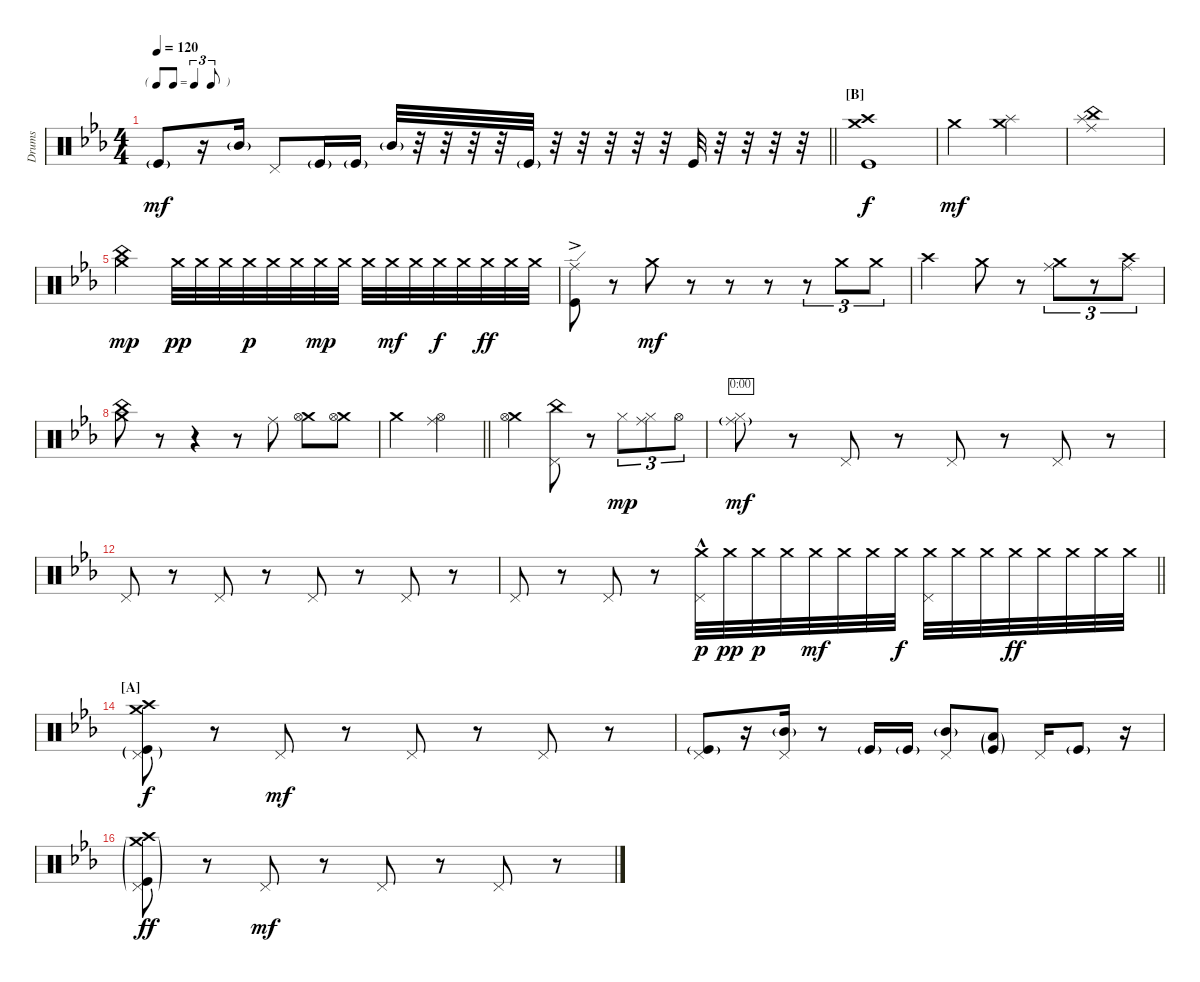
\bracketExtendMode nobrackets
\otherSystemsTrackNameOrientation horizontal
\defaultBarNumberDisplay FirstOfSystem
\track ("Drumkit" "Drums") {instrument percussion}
\staff {score}
\articulation defaults
\ts (4 4)
\tf triplet8th
\tempo 120
\clef neutral
\barLineRight lightlight
\ks cminor "Kick (hit)"{g}.8{dy mf}
r.16 "Mid Tom (hit)"{g}.16 "Pedal Hi-Hat (hit)".8 "Kick (hit)"{g}.16 "Kick (hit)"{g}.16 "Mid Tom (hit)"{g}.32 r.32 r.32 r.32 r.32 "Kick (hit)"{g}.32 r.32 r.32 r.32 r.32 r.32 "Kick (hit)".32 r.32 r.32 r.32 r.32 |
\section ("B" "")
("Crash medium (hit)" "Crash high (hit)" "Kick (hit)").1{dy f} |
"Crash medium (hit)".2{dy mf} ("Crash medium (hit)" "Splash (hit)").2 |
("Ride (middle)" "China (hit)" "Splash (hit)").1 |
("Crash medium (hit)" "China (hit)").2{dy mp} "Crash medium (hit)".32{dy pp} "Crash medium (hit)".32 "Crash medium (hit)".32 "Crash medium (hit)".32{dy p} "Crash medium (hit)".32 "Crash medium (hit)".32 "Crash medium (hit)".32{dy mp} "Crash medium (hit)".32 "Crash medium (hit)".32 "Crash medium (hit)".32{dy mf} "Crash medium (hit)".32 "Crash medium (hit)".32{dy f} "Crash medium (hit)".32 "Crash medium (hit)".32{dy ff} "Crash medium (hit)".32 "Crash medium (hit)".32 |
("Ride (edge)" "Kick (hit)"{ac}).8 r.8 "Crash medium (hit)".8{dy mf} r.8 r.8 r.8 r.8{tu (3 2)} "Crash medium (hit)".8{tu (3 2)} "Crash medium (hit)".8{tu (3 2)} |
"Crash high (hit)".2 "Crash medium (hit)".8 r.8 ("Ride (middle)" "Crash medium (hit)").8{tu (3 2)} r.8{tu (3 2)} ("Ride (middle)" "Crash high (hit)").8{tu (3 2)} |
("Crash medium (hit)" "China (hit)").8 r.8 r.4 r.8 "Ride (middle)".8 ("Crash medium (hit)" "Hi-Hat (open)").8 ("Crash medium (hit)" "Hi-Hat (open)").8 |
\barLineRight lightlight "Crash medium (hit)".2
("Hi-Hat (open)" "Ride (middle)").2 |
("Crash medium (hit)" "Hi-Hat (open)").2 ("Pedal Hi-Hat (hit)" "China (hit)").8 r.8 "Hi-Hat (closed)".8{tu (3 2) dy mp} ("Ride (middle)" "Hi-Hat (closed)").8{tu (3 2)} "Hi-Hat (open)".8{tu (3 2)} |
("Ride (middle)"{g} "Hi-Hat (closed)").8{dy mf timer} r.8 "Pedal Hi-Hat (hit)".8 r.8 "Pedal Hi-Hat (hit)".8 r.8 "Pedal Hi-Hat (hit)".8 r.8 |
"Pedal Hi-Hat (hit)".8 r.8 "Pedal Hi-Hat (hit)".8 r.8 "Pedal Hi-Hat (hit)".8 r.8 "Pedal Hi-Hat (hit)".8 r.8 |
\barLineRight lightlight "Pedal Hi-Hat (hit)".8
r.8 "Pedal Hi-Hat (hit)".8 r.8 ("Crash medium (hit)" "Pedal Hi-Hat (hit)"{hac}).32{dy p} "Crash medium (hit)".32{dy pp} "Crash medium (hit)".32{dy p} "Crash medium (hit)".32 "Crash medium (hit)".32{dy mf} "Crash medium (hit)".32 "Crash medium (hit)".32 "Crash medium (hit)".32{dy f} ("Crash medium (hit)" "Pedal Hi-Hat (hit)").32 "Crash medium (hit)".32 "Crash medium (hit)".32 "Crash medium (hit)".32{dy ff} "Crash medium (hit)".32 "Crash medium (hit)".32 "Crash medium (hit)".32 "Crash medium (hit)".32 |
\section ("A" "")
("Pedal Hi-Hat (hit)"{g} "Kick (hit)"{g} "Crash medium (hit)" "Crash high (hit)").8{dy f} r.8 "Pedal Hi-Hat (hit)".8{dy mf} r.8 "Pedal Hi-Hat (hit)".8 r.8 "Pedal Hi-Hat (hit)".8 r.8 |
("Kick (hit)"{g} "Pedal Hi-Hat (hit)").8 r.16 ("Mid Tom (hit)"{g} "Pedal Hi-Hat (hit)").16 r.8 "Kick (hit)"{g}.16 "Kick (hit)"{g}.16 ("Mid Tom (hit)"{g} "Pedal Hi-Hat (hit)").8 ("Low Tom (hit)"{g} "Kick (hit)"{g}).8 "Pedal Hi-Hat (hit)".16 "Kick (hit)"{g}.8 r.16 |
("Kick (hit)"{g} "Crash high (hit)" "Crash medium (hit)"{g} "Pedal Hi-Hat (hit)"{g}).8{dy ff} r.8 "Pedal Hi-Hat (hit)".8{dy mf} r.8 "Pedal Hi-Hat (hit)".8 r.8 "Pedal Hi-Hat (hit)".8 r.8
